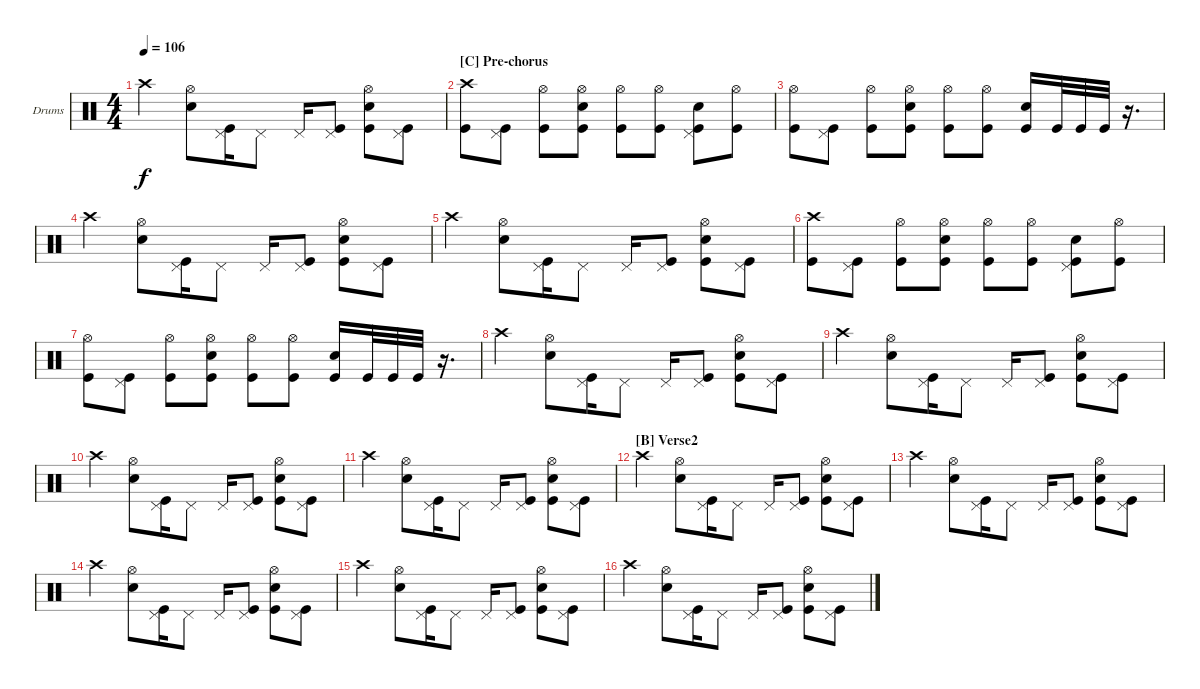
\bracketExtendMode groupsimilarinstruments
\firstSystemTrackNameOrientation horizontal
\otherSystemsTrackNameOrientation horizontal
\track ("Drumkit" "Drums") {instrument percussion}
\staff {score}
\articulation defaults
\ts (4 4)
\tempo 106
\clef neutral
\ks c "Crash high (hit)".4{dy f}
("Hi-Hat (open)" "Snare (hit) 2").8 ("Pedal Hi-Hat (hit)" "Kick (hit)").16 "Pedal Hi-Hat (hit)".8 "Pedal Hi-Hat (hit)".16 ("Pedal Hi-Hat (hit)" "Kick (hit)").8 ("Hi-Hat (open)" "Snare (hit) 2" "Kick (hit)").8 ("Pedal Hi-Hat (hit)" "Kick (hit)").8 |
\section ("C" "Pre-chorus")
("Crash high (hit)" "Kick (hit)").8 ("Pedal Hi-Hat (hit)" "Kick (hit)").8 ("Hi-Hat (open)" "Kick (hit)").8 ("Hi-Hat (open)" "Snare (hit) 2" "Kick (hit)").8 ("Hi-Hat (open)" "Kick (hit)").8 ("Hi-Hat (open)" "Kick (hit)").8 ("Pedal Hi-Hat (hit)" "Snare (hit) 2" "Kick (hit)").8 ("Hi-Hat (open)" "Kick (hit)").8 |
("Hi-Hat (open)" "Kick (hit)").8 ("Pedal Hi-Hat (hit)" "Kick (hit)").8 ("Hi-Hat (open)" "Kick (hit)").8 ("Hi-Hat (open)" "Snare (hit) 2" "Kick (hit)").8 ("Hi-Hat (open)" "Kick (hit)").8 ("Hi-Hat (open)" "Kick (hit)").8 ("Snare (hit) 2" "Kick (hit)").16 "Kick (hit)".32 "Kick (hit)".32 "Kick (hit)".32 r.16{d} |
"Crash high (hit)".4 ("Hi-Hat (open)" "Snare (hit) 2").8 ("Pedal Hi-Hat (hit)" "Kick (hit)").16 "Pedal Hi-Hat (hit)".8 "Pedal Hi-Hat (hit)".16 ("Pedal Hi-Hat (hit)" "Kick (hit)").8 ("Hi-Hat (open)" "Snare (hit) 2" "Kick (hit)").8 ("Pedal Hi-Hat (hit)" "Kick (hit)").8 |
"Crash high (hit)".4 ("Hi-Hat (open)" "Snare (hit) 2").8 ("Pedal Hi-Hat (hit)" "Kick (hit)").16 "Pedal Hi-Hat (hit)".8 "Pedal Hi-Hat (hit)".16 ("Pedal Hi-Hat (hit)" "Kick (hit)").8 ("Hi-Hat (open)" "Snare (hit) 2" "Kick (hit)").8 ("Pedal Hi-Hat (hit)" "Kick (hit)").8 |
("Crash high (hit)" "Kick (hit)").8 ("Pedal Hi-Hat (hit)" "Kick (hit)").8 ("Hi-Hat (open)" "Kick (hit)").8 ("Hi-Hat (open)" "Snare (hit) 2" "Kick (hit)").8 ("Hi-Hat (open)" "Kick (hit)").8 ("Hi-Hat (open)" "Kick (hit)").8 ("Pedal Hi-Hat (hit)" "Snare (hit) 2" "Kick (hit)").8 ("Hi-Hat (open)" "Kick (hit)").8 |
("Hi-Hat (open)" "Kick (hit)").8 ("Pedal Hi-Hat (hit)" "Kick (hit)").8 ("Hi-Hat (open)" "Kick (hit)").8 ("Hi-Hat (open)" "Snare (hit) 2" "Kick (hit)").8 ("Hi-Hat (open)" "Kick (hit)").8 ("Hi-Hat (open)" "Kick (hit)").8 ("Snare (hit) 2" "Kick (hit)").16 "Kick (hit)".32 "Kick (hit)".32 "Kick (hit)".32 r.16{d} |
"Crash high (hit)".4 ("Hi-Hat (open)" "Snare (hit) 2").8 ("Pedal Hi-Hat (hit)" "Kick (hit)").16 "Pedal Hi-Hat (hit)".8 "Pedal Hi-Hat (hit)".16 ("Pedal Hi-Hat (hit)" "Kick (hit)").8 ("Hi-Hat (open)" "Snare (hit) 2" "Kick (hit)").8 ("Pedal Hi-Hat (hit)" "Kick (hit)").8 |
"Crash high (hit)".4 ("Hi-Hat (open)" "Snare (hit) 2").8 ("Pedal Hi-Hat (hit)" "Kick (hit)").16 "Pedal Hi-Hat (hit)".8 "Pedal Hi-Hat (hit)".16 ("Pedal Hi-Hat (hit)" "Kick (hit)").8 ("Hi-Hat (open)" "Snare (hit) 2" "Kick (hit)").8 ("Pedal Hi-Hat (hit)" "Kick (hit)").8 |
"Crash high (hit)".4 ("Hi-Hat (open)" "Snare (hit) 2").8 ("Pedal Hi-Hat (hit)" "Kick (hit)").16 "Pedal Hi-Hat (hit)".8 "Pedal Hi-Hat (hit)".16 ("Pedal Hi-Hat (hit)" "Kick (hit)").8 ("Hi-Hat (open)" "Snare (hit) 2" "Kick (hit)").8 ("Pedal Hi-Hat (hit)" "Kick (hit)").8 |
"Crash high (hit)".4 ("Hi-Hat (open)" "Snare (hit) 2").8 ("Pedal Hi-Hat (hit)" "Kick (hit)").16 "Pedal Hi-Hat (hit)".8 "Pedal Hi-Hat (hit)".16 ("Pedal Hi-Hat (hit)" "Kick (hit)").8 ("Hi-Hat (open)" "Snare (hit) 2" "Kick (hit)").8 ("Pedal Hi-Hat (hit)" "Kick (hit)").8 |
\section ("B" "Verse2")
"Crash high (hit)".4 ("Hi-Hat (open)" "Snare (hit) 2").8 ("Pedal Hi-Hat (hit)" "Kick (hit)").16 "Pedal Hi-Hat (hit)".8 "Pedal Hi-Hat (hit)".16 ("Pedal Hi-Hat (hit)" "Kick (hit)").8 ("Hi-Hat (open)" "Snare (hit) 2" "Kick (hit)").8 ("Pedal Hi-Hat (hit)" "Kick (hit)").8 |
"Crash high (hit)".4 ("Hi-Hat (open)" "Snare (hit) 2").8 ("Pedal Hi-Hat (hit)" "Kick (hit)").16 "Pedal Hi-Hat (hit)".8 "Pedal Hi-Hat (hit)".16 ("Pedal Hi-Hat (hit)" "Kick (hit)").8 ("Hi-Hat (open)" "Snare (hit) 2" "Kick (hit)").8 ("Pedal Hi-Hat (hit)" "Kick (hit)").8 |
"Crash high (hit)".4 ("Hi-Hat (open)" "Snare (hit) 2").8 ("Pedal Hi-Hat (hit)" "Kick (hit)").16 "Pedal Hi-Hat (hit)".8 "Pedal Hi-Hat (hit)".16 ("Pedal Hi-Hat (hit)" "Kick (hit)").8 ("Hi-Hat (open)" "Snare (hit) 2" "Kick (hit)").8 ("Pedal Hi-Hat (hit)" "Kick (hit)").8 |
"Crash high (hit)".4 ("Hi-Hat (open)" "Snare (hit) 2").8 ("Pedal Hi-Hat (hit)" "Kick (hit)").16 "Pedal Hi-Hat (hit)".8 "Pedal Hi-Hat (hit)".16 ("Pedal Hi-Hat (hit)" "Kick (hit)").8 ("Hi-Hat (open)" "Snare (hit) 2" "Kick (hit)").8 ("Pedal Hi-Hat (hit)" "Kick (hit)").8 |
"Crash high (hit)".4 ("Hi-Hat (open)" "Snare (hit) 2").8 ("Pedal Hi-Hat (hit)" "Kick (hit)").16 "Pedal Hi-Hat (hit)".8 "Pedal Hi-Hat (hit)".16 ("Pedal Hi-Hat (hit)" "Kick (hit)").8 ("Hi-Hat (open)" "Snare (hit) 2" "Kick (hit)").8 ("Pedal Hi-Hat (hit)" "Kick (hit)").8
